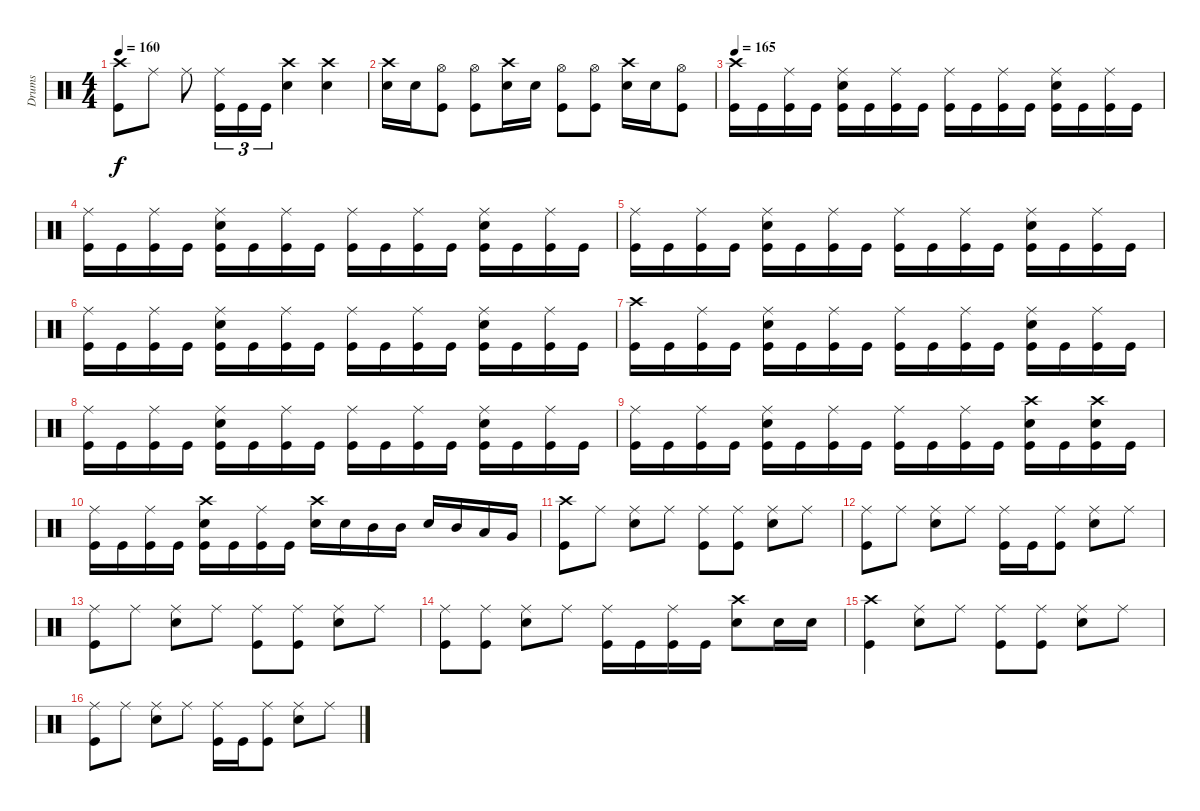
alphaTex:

\track ("Drums" "Drums") {instrument percussion}
\staff {score}
\articulation defaults
\ts (4 4)
\tempo 160
\clef neutral
\ks c
("Crash high (hit)" "Kick (hit)").8{dy f} "Ride (middle)".8 "Ride (middle)".8 ("Ride (middle)" "Kick (hit)").16{tu (3 2)} "Kick (hit)".16{tu (3 2)} "Kick (hit)".16{tu (3 2)} ("Crash high (hit)" "Electric Snare (hit)").4 ("Crash high (hit)" "Electric Snare (hit)").4 |
("Crash high (hit)" "Electric Snare (hit)").16 "Electric Snare (hit)".16 ("Hi-Hat (open)" "Kick (hit)").8 ("Hi-Hat (open)" "Kick (hit)").8 ("Crash high (hit)" "Electric Snare (hit)").16 "Electric Snare (hit)".16 ("Hi-Hat (open)" "Kick (hit)").8 ("Hi-Hat (open)" "Kick (hit)").8 ("Crash high (hit)" "Electric Snare (hit)").16 "Electric Snare (hit)".16 ("Hi-Hat (open)" "Kick (hit)").8 |
\tempo 165
("Crash high (hit)" "Kick (hit)").16 "Kick (hit)".16 ("Ride (middle)" "Kick (hit)").16 "Kick (hit)".16 ("Ride (middle)" "Electric Snare (hit)" "Kick (hit)").16 "Kick (hit)".16 ("Ride (middle)" "Kick (hit)").16 "Kick (hit)".16 ("Ride (middle)" "Kick (hit)").16 "Kick (hit)".16 ("Ride (middle)" "Kick (hit)").16 "Kick (hit)".16 ("Ride (middle)" "Electric Snare (hit)" "Kick (hit)").16 "Kick (hit)".16 ("Ride (middle)" "Kick (hit)").16 "Kick (hit)".16 |
("Ride (middle)" "Kick (hit)").16 "Kick (hit)".16 ("Ride (middle)" "Kick (hit)").16 "Kick (hit)".16 ("Ride (middle)" "Electric Snare (hit)" "Kick (hit)").16 "Kick (hit)".16 ("Ride (middle)" "Kick (hit)").16 "Kick (hit)".16 ("Ride (middle)" "Kick (hit)").16 "Kick (hit)".16 ("Ride (middle)" "Kick (hit)").16 "Kick (hit)".16 ("Ride (middle)" "Electric Snare (hit)" "Kick (hit)").16 "Kick (hit)".16 ("Ride (middle)" "Kick (hit)").16 "Kick (hit)".16 |
("Ride (middle)" "Kick (hit)").16 "Kick (hit)".16 ("Ride (middle)" "Kick (hit)").16 "Kick (hit)".16 ("Ride (middle)" "Electric Snare (hit)" "Kick (hit)").16 "Kick (hit)".16 ("Ride (middle)" "Kick (hit)").16 "Kick (hit)".16 ("Ride (middle)" "Kick (hit)").16 "Kick (hit)".16 ("Ride (middle)" "Kick (hit)").16 "Kick (hit)".16 ("Ride (middle)" "Electric Snare (hit)" "Kick (hit)").16 "Kick (hit)".16 ("Ride (middle)" "Kick (hit)").16 "Kick (hit)".16 |
("Ride (middle)" "Kick (hit)").16 "Kick (hit)".16 ("Ride (middle)" "Kick (hit)").16 "Kick (hit)".16 ("Ride (middle)" "Electric Snare (hit)" "Kick (hit)").16 "Kick (hit)".16 ("Ride (middle)" "Kick (hit)").16 "Kick (hit)".16 ("Ride (middle)" "Kick (hit)").16 "Kick (hit)".16 ("Ride (middle)" "Kick (hit)").16 "Kick (hit)".16 ("Ride (middle)" "Electric Snare (hit)" "Kick (hit)").16 "Kick (hit)".16 ("Ride (middle)" "Kick (hit)").16 "Kick (hit)".16 |
("Crash high (hit)" "Kick (hit)").16 "Kick (hit)".16 ("Ride (middle)" "Kick (hit)").16 "Kick (hit)".16 ("Ride (middle)" "Electric Snare (hit)" "Kick (hit)").16 "Kick (hit)".16 ("Ride (middle)" "Kick (hit)").16 "Kick (hit)".16 ("Ride (middle)" "Kick (hit)").16 "Kick (hit)".16 ("Ride (middle)" "Kick (hit)").16 "Kick (hit)".16 ("Ride (middle)" "Electric Snare (hit)" "Kick (hit)").16 "Kick (hit)".16 ("Ride (middle)" "Kick (hit)").16 "Kick (hit)".16 |
("Ride (middle)" "Kick (hit)").16 "Kick (hit)".16 ("Ride (middle)" "Kick (hit)").16 "Kick (hit)".16 ("Ride (middle)" "Electric Snare (hit)" "Kick (hit)").16 "Kick (hit)".16 ("Ride (middle)" "Kick (hit)").16 "Kick (hit)".16 ("Ride (middle)" "Kick (hit)").16 "Kick (hit)".16 ("Ride (middle)" "Kick (hit)").16 "Kick (hit)".16 ("Ride (middle)" "Electric Snare (hit)" "Kick (hit)").16 "Kick (hit)".16 ("Ride (middle)" "Kick (hit)").16 "Kick (hit)".16 |
("Ride (middle)" "Kick (hit)").16 "Kick (hit)".16 ("Ride (middle)" "Kick (hit)").16 "Kick (hit)".16 ("Ride (middle)" "Electric Snare (hit)" "Kick (hit)").16 "Kick (hit)".16 ("Ride (middle)" "Kick (hit)").16 "Kick (hit)".16 ("Ride (middle)" "Kick (hit)").16 "Kick (hit)".16 ("Ride (middle)" "Kick (hit)").16 "Kick (hit)".16 ("Crash high (hit)" "Electric Snare (hit)" "Kick (hit)").16 "Kick (hit)".16 ("Crash high (hit)" "Electric Snare (hit)" "Kick (hit)").16 "Kick (hit)".16 |
("Ride (middle)" "Kick (hit)").16 "Kick (hit)".16 ("Ride (middle)" "Kick (hit)").16 "Kick (hit)".16 ("Crash high (hit)" "Electric Snare (hit)" "Kick (hit)").16 "Kick (hit)".16 ("Ride (middle)" "Kick (hit)").16 "Kick (hit)".16 ("Crash high (hit)" "Electric Snare (hit)").16 "Electric Snare (hit)".16 "Mid Tom (hit)".16 "Mid Tom (hit)".16 "Electric Snare (hit)".16 "Mid Tom (hit)".16 "Low Tom (hit)".16 "Very Low Tom (hit)".16 |
("Crash high (hit)" "Kick (hit)").8 "Ride (middle)".8 ("Ride (middle)" "Electric Snare (hit)").8 "Ride (middle)".8 ("Ride (middle)" "Kick (hit)").8 ("Ride (middle)" "Kick (hit)").8 ("Ride (middle)" "Electric Snare (hit)").8 "Ride (middle)".8 |
("Ride (middle)" "Kick (hit)").8 "Ride (middle)".8 ("Ride (middle)" "Electric Snare (hit)").8 "Ride (middle)".8 ("Ride (middle)" "Kick (hit)").16 "Kick (hit)".16 ("Ride (middle)" "Kick (hit)").8 ("Ride (middle)" "Electric Snare (hit)").8 "Ride (middle)".8 |
("Ride (middle)" "Kick (hit)").8 "Ride (middle)".8 ("Ride (middle)" "Electric Snare (hit)").8 "Ride (middle)".8 ("Ride (middle)" "Kick (hit)").8 ("Ride (middle)" "Kick (hit)").8 ("Ride (middle)" "Electric Snare (hit)").8 "Ride (middle)".8 |
("Ride (middle)" "Kick (hit)").8 ("Ride (middle)" "Kick (hit)").8 ("Ride (middle)" "Electric Snare (hit)").8 "Ride (middle)".8 ("Ride (middle)" "Kick (hit)").16 "Kick (hit)".16 ("Ride (middle)" "Kick (hit)").16 "Kick (hit)".16 ("Crash high (hit)" "Electric Snare (hit)").8 "Electric Snare (hit)".16 "Electric Snare (hit)".16 |
("Crash high (hit)" "Kick (hit)").4 ("Ride (middle)" "Electric Snare (hit)").8 "Ride (middle)".8 ("Ride (middle)" "Kick (hit)").8 ("Ride (middle)" "Kick (hit)").8 ("Ride (middle)" "Electric Snare (hit)").8 "Ride (middle)".8 |
("Ride (middle)" "Kick (hit)").8 "Ride (middle)".8 ("Ride (middle)" "Electric Snare (hit)").8 "Ride (middle)".8 ("Ride (middle)" "Kick (hit)").16 "Kick (hit)".16 ("Ride (middle)" "Kick (hit)").8 ("Ride (middle)" "Electric Snare (hit)").8 "Ride (middle)".8
